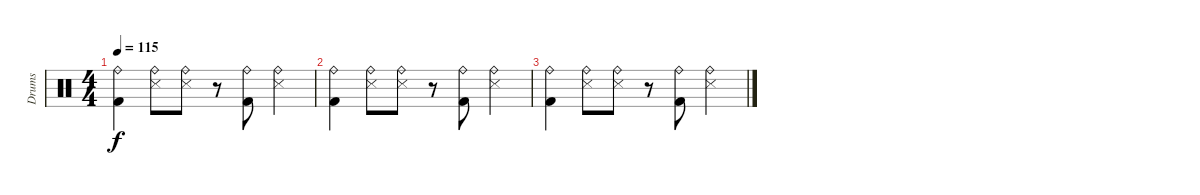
\track ("Drums" "Drums") {instrument percussion}
\staff {score}
\articulation defaults
\ts (4 4)
\tempo 115
\clef neutral
\ks c
("Ride (bell)" "Kick (hit) 2").4{dy f} ("Ride (bell)" "Snare (side stick) 3").8 ("Ride (bell)" "Snare (side stick) 3").8 r.8 ("Ride (bell)" "Kick (hit) 2").8 ("Ride (bell)" "Snare (side stick) 3").4 |
("Ride (bell)" "Kick (hit) 2").4 ("Ride (bell)" "Snare (side stick) 3").8 ("Ride (bell)" "Snare (side stick) 3").8 r.8 ("Ride (bell)" "Kick (hit) 2").8 ("Ride (bell)" "Snare (side stick) 3").4 |
("Ride (bell)" "Kick (hit) 2").4 ("Ride (bell)" "Snare (side stick) 3").8 ("Ride (bell)" "Snare (side stick) 3").8 r.8 ("Ride (bell)" "Kick (hit) 2").8 ("Ride (bell)" "Snare (side stick) 3").4
